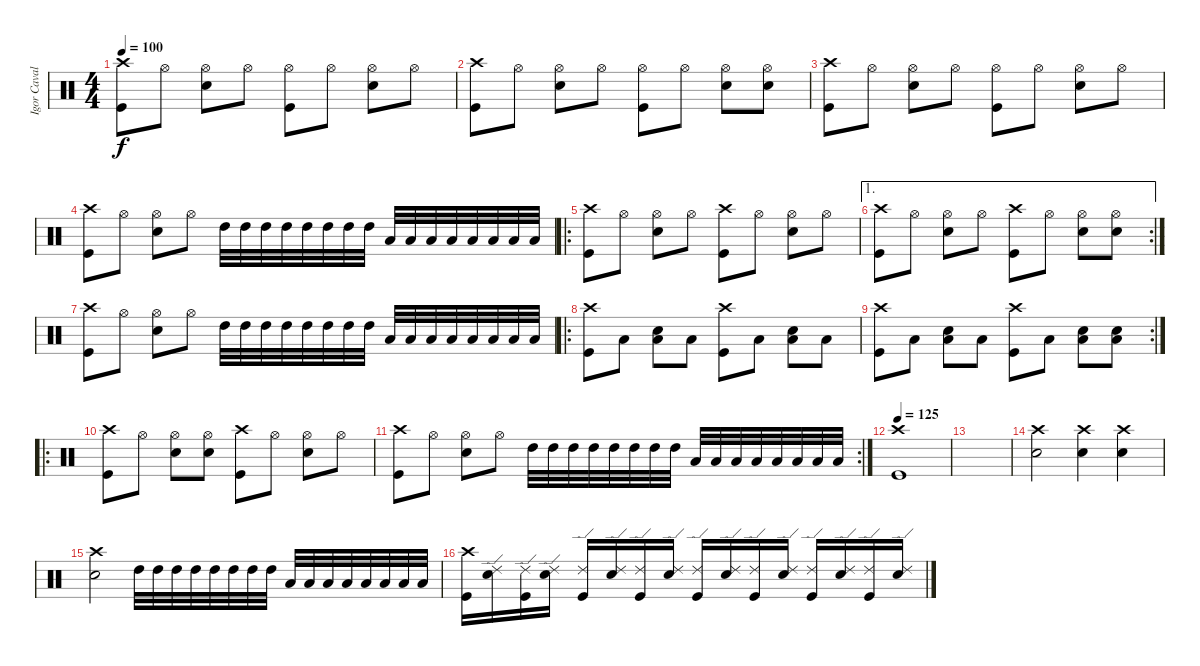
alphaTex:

\track ("Igor Cavalera" "Igor Caval") {instrument percussion}
\staff {score}
\articulation defaults
\ts (4 4)
\tempo 100
\clef neutral
\ks c
("Crash high (hit)" "Kick (hit)").8{dy f} "Hi-Hat (open)".8 ("Hi-Hat (open)" "Snare (hit) 2").8 "Hi-Hat (open)".8 ("Hi-Hat (open)" "Kick (hit)").8 "Hi-Hat (open)".8 ("Hi-Hat (open)" "Snare (hit) 2").8 "Hi-Hat (open)".8 |
("Crash high (hit)" "Kick (hit)").8 "Hi-Hat (open)".8 ("Hi-Hat (open)" "Snare (hit) 2").8 "Hi-Hat (open)".8 ("Hi-Hat (open)" "Kick (hit)").8 "Hi-Hat (open)".8 ("Hi-Hat (open)" "Snare (hit) 2").8 ("Hi-Hat (open)" "Snare (hit) 2").8 |
("Crash high (hit)" "Kick (hit)").8 "Hi-Hat (open)".8 ("Hi-Hat (open)" "Snare (hit) 2").8 "Hi-Hat (open)".8 ("Hi-Hat (open)" "Kick (hit)").8 "Hi-Hat (open)".8 ("Hi-Hat (open)" "Snare (hit) 2").8 "Hi-Hat (open)".8 |
("Crash high (hit)" "Kick (hit)").8 "Hi-Hat (open)".8 ("Hi-Hat (open)" "Snare (hit) 2").8 "Hi-Hat (open)".8 "High Tom (hit)".32 "High Tom (hit)".32 "High Tom (hit)".32 "High Tom (hit)".32 "High Tom (hit)".32 "High Tom (hit)".32 "High Tom (hit)".32 "High Tom (hit)".32 "Low Tom (hit)".32 "Low Tom (hit)".32 "Low Tom (hit)".32 "Low Tom (hit)".32 "Low Tom (hit)".32 "Low Tom (hit)".32 "Low Tom (hit)".32 "Low Tom (hit)".32 |
\ro
("Crash high (hit)" "Kick (hit)").8 "Hi-Hat (open)".8 ("Hi-Hat (open)" "Snare (hit) 2").8 "Hi-Hat (open)".8 ("Crash high (hit)" "Kick (hit)").8 "Hi-Hat (open)".8 ("Hi-Hat (open)" "Snare (hit) 2").8 "Hi-Hat (open)".8 |
\ae 1
\rc 2
("Crash high (hit)" "Kick (hit)").8 "Hi-Hat (open)".8 ("Hi-Hat (open)" "Snare (hit) 2").8 "Hi-Hat (open)".8 ("Crash high (hit)" "Kick (hit)").8 "Hi-Hat (open)".8 ("Hi-Hat (open)" "Snare (hit) 2").8 ("Hi-Hat (open)" "Snare (hit) 2").8 |
("Crash high (hit)" "Kick (hit)").8 "Hi-Hat (open)".8 ("Hi-Hat (open)" "Snare (hit) 2").8 "Hi-Hat (open)".8 "High Tom (hit)".32 "High Tom (hit)".32 "High Tom (hit)".32 "High Tom (hit)".32 "High Tom (hit)".32 "High Tom (hit)".32 "High Tom (hit)".32 "High Tom (hit)".32 "Low Tom (hit)".32 "Low Tom (hit)".32 "Low Tom (hit)".32 "Low Tom (hit)".32 "Low Tom (hit)".32 "Low Tom (hit)".32 "Low Tom (hit)".32 "Low Tom (hit)".32 |
\ro
("Crash high (hit)" "Kick (hit)").8 "Low Floor Tom (hit)".8 ("Low Floor Tom (hit)" "Snare (hit) 2").8 "Low Floor Tom (hit)".8 ("Crash high (hit)" "Kick (hit)").8 "Low Floor Tom (hit)".8 ("Low Floor Tom (hit)" "Snare (hit) 2").8 "Low Floor Tom (hit)".8 |
\rc 2
("Crash high (hit)" "Kick (hit)").8 "Low Floor Tom (hit)".8 ("Low Floor Tom (hit)" "Snare (hit) 2").8 "Low Floor Tom (hit)".8 ("Crash high (hit)" "Kick (hit)").8 "Low Floor Tom (hit)".8 ("Low Floor Tom (hit)" "Snare (hit) 2").8 ("Low Floor Tom (hit)" "Snare (hit) 2").8 |
\ro
("Crash high (hit)" "Kick (hit)").8 "Hi-Hat (open)".8 ("Hi-Hat (open)" "Snare (hit) 2").8 ("Hi-Hat (open)" "Snare (hit) 2").8 ("Crash high (hit)" "Kick (hit)").8 "Hi-Hat (open)".8 ("Hi-Hat (open)" "Snare (hit) 2").8 "Hi-Hat (open)".8 |
\rc 2
("Crash high (hit)" "Kick (hit)").8 "Hi-Hat (open)".8 ("Hi-Hat (open)" "Snare (hit) 2").8 "Hi-Hat (open)".8 "High Tom (hit)".32 "High Tom (hit)".32 "High Tom (hit)".32 "High Tom (hit)".32 "High Tom (hit)".32 "High Tom (hit)".32 "High Tom (hit)".32 "High Tom (hit)".32 "Low Tom (hit)".32 "Low Tom (hit)".32 "Low Tom (hit)".32 "Low Tom (hit)".32 "Low Tom (hit)".32 "Low Tom (hit)".32 "Low Tom (hit)".32 "Low Tom (hit)".32 |
\tempo 125
("Crash high (hit)" "Kick (hit)").1 |
|
("Crash high (hit)" "Snare (hit) 2").2 ("Crash high (hit)" "Snare (hit) 2").4 ("Crash high (hit)" "Snare (hit) 2").4 |
("Crash high (hit)" "Snare (hit) 2").2 "High Tom (hit)".32 "High Tom (hit)".32 "High Tom (hit)".32 "High Tom (hit)".32 "High Tom (hit)".32 "High Tom (hit)".32 "High Tom (hit)".32 "High Tom (hit)".32 "Low Tom (hit)".32 "Low Tom (hit)".32 "Low Tom (hit)".32 "Low Tom (hit)".32 "Low Tom (hit)".32 "Low Tom (hit)".32 "Low Tom (hit)".32 "Low Tom (hit)".32 |
("Crash high (hit)" "Kick (hit)").16 ("Ride (edge) 2" "Snare (hit) 2").16 ("Ride (edge) 2" "Kick (hit)").16 ("Ride (edge) 2" "Snare (hit) 2").16 ("Ride (edge) 2" "Kick (hit)").16 ("Ride (edge) 2" "Snare (hit) 2").16 ("Ride (edge) 2" "Kick (hit)").16 ("Ride (edge) 2" "Snare (hit) 2").16 ("Ride (edge) 2" "Kick (hit)").16 ("Ride (edge) 2" "Snare (hit) 2").16 ("Ride (edge) 2" "Kick (hit)").16 ("Ride (edge) 2" "Snare (hit) 2").16 ("Ride (edge) 2" "Kick (hit)").16 ("Ride (edge) 2" "Snare (hit) 2").16 ("Ride (edge) 2" "Kick (hit)").16 ("Ride (edge) 2" "Snare (hit) 2").16
